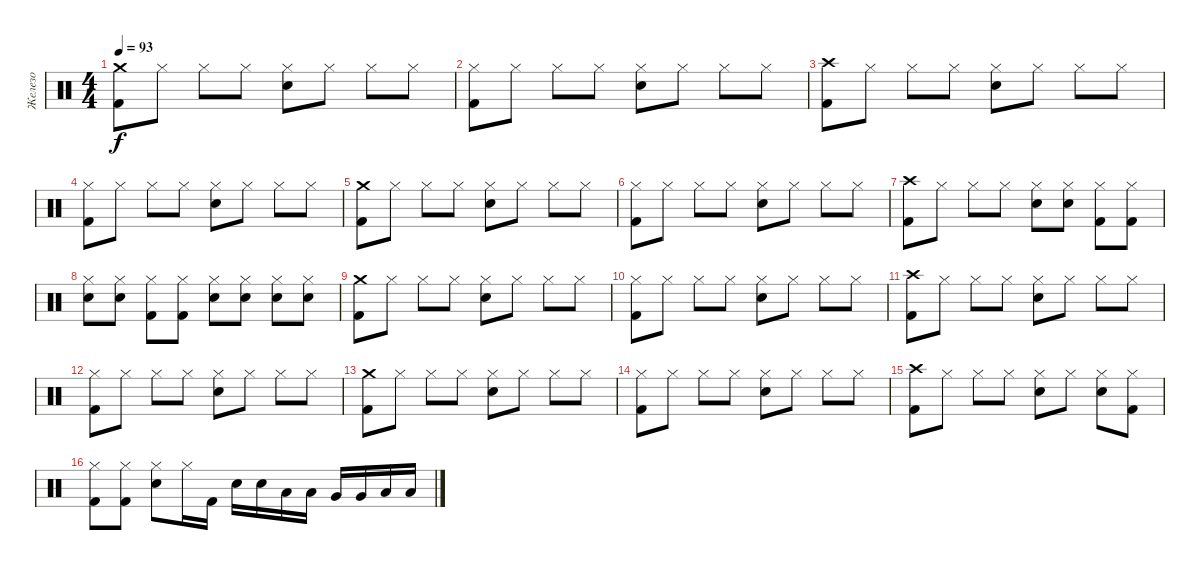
\track ("Железо" "Железо") {instrument percussion}
\staff {score}
\articulation defaults
\ts (4 4)
\tempo 93
\clef neutral
\ks c
("Crash medium (hit)" "Kick (hit) 2").8{dy f} "Hi-Hat (closed)".8 "Hi-Hat (closed)".8 "Hi-Hat (closed)".8 ("Hi-Hat (closed)" "Electric Snare (hit)").8 "Hi-Hat (closed)".8 "Hi-Hat (closed)".8 "Hi-Hat (closed)".8 |
("Hi-Hat (closed)" "Kick (hit) 2").8 "Hi-Hat (closed)".8 "Hi-Hat (closed)".8 "Hi-Hat (closed)".8 ("Hi-Hat (closed)" "Electric Snare (hit)").8 "Hi-Hat (closed)".8 "Hi-Hat (closed)".8 "Hi-Hat (closed)".8 |
("Crash high (hit)" "Kick (hit) 2").8 "Hi-Hat (closed)".8 "Hi-Hat (closed)".8 "Hi-Hat (closed)".8 ("Hi-Hat (closed)" "Electric Snare (hit)").8 "Hi-Hat (closed)".8 "Hi-Hat (closed)".8 "Hi-Hat (closed)".8 |
("Hi-Hat (closed)" "Kick (hit) 2").8 "Hi-Hat (closed)".8 "Hi-Hat (closed)".8 "Hi-Hat (closed)".8 ("Hi-Hat (closed)" "Electric Snare (hit)").8 "Hi-Hat (closed)".8 "Hi-Hat (closed)".8 "Hi-Hat (closed)".8 |
("Crash medium (hit)" "Kick (hit) 2").8 "Hi-Hat (closed)".8 "Hi-Hat (closed)".8 "Hi-Hat (closed)".8 ("Hi-Hat (closed)" "Electric Snare (hit)").8 "Hi-Hat (closed)".8 "Hi-Hat (closed)".8 "Hi-Hat (closed)".8 |
("Hi-Hat (closed)" "Kick (hit) 2").8 "Hi-Hat (closed)".8 "Hi-Hat (closed)".8 "Hi-Hat (closed)".8 ("Hi-Hat (closed)" "Electric Snare (hit)").8 "Hi-Hat (closed)".8 "Hi-Hat (closed)".8 "Hi-Hat (closed)".8 |
("Crash high (hit)" "Kick (hit) 2").8 "Hi-Hat (closed)".8 "Hi-Hat (closed)".8 "Hi-Hat (closed)".8 ("Hi-Hat (closed)" "Electric Snare (hit)").8 ("Hi-Hat (closed)" "Electric Snare (hit)").8 ("Hi-Hat (closed)" "Kick (hit) 2").8 ("Hi-Hat (closed)" "Kick (hit) 2").8 |
("Hi-Hat (closed)" "Electric Snare (hit)").8 ("Hi-Hat (closed)" "Electric Snare (hit)").8 ("Hi-Hat (closed)" "Kick (hit) 2").8 ("Hi-Hat (closed)" "Kick (hit) 2").8 ("Hi-Hat (closed)" "Electric Snare (hit)").8 ("Hi-Hat (closed)" "Electric Snare (hit)").8 ("Hi-Hat (closed)" "Electric Snare (hit)").8 ("Hi-Hat (closed)" "Electric Snare (hit)").8 |
("Crash medium (hit)" "Kick (hit) 2").8 "Hi-Hat (closed)".8 "Hi-Hat (closed)".8 "Hi-Hat (closed)".8 ("Hi-Hat (closed)" "Electric Snare (hit)").8 "Hi-Hat (closed)".8 "Hi-Hat (closed)".8 "Hi-Hat (closed)".8 |
("Hi-Hat (closed)" "Kick (hit) 2").8 "Hi-Hat (closed)".8 "Hi-Hat (closed)".8 "Hi-Hat (closed)".8 ("Hi-Hat (closed)" "Electric Snare (hit)").8 "Hi-Hat (closed)".8 "Hi-Hat (closed)".8 "Hi-Hat (closed)".8 |
("Crash high (hit)" "Kick (hit) 2").8 "Hi-Hat (closed)".8 "Hi-Hat (closed)".8 "Hi-Hat (closed)".8 ("Hi-Hat (closed)" "Electric Snare (hit)").8 "Hi-Hat (closed)".8 "Hi-Hat (closed)".8 "Hi-Hat (closed)".8 |
("Hi-Hat (closed)" "Kick (hit) 2").8 "Hi-Hat (closed)".8 "Hi-Hat (closed)".8 "Hi-Hat (closed)".8 ("Hi-Hat (closed)" "Electric Snare (hit)").8 "Hi-Hat (closed)".8 "Hi-Hat (closed)".8 "Hi-Hat (closed)".8 |
("Crash medium (hit)" "Kick (hit) 2").8 "Hi-Hat (closed)".8 "Hi-Hat (closed)".8 "Hi-Hat (closed)".8 ("Hi-Hat (closed)" "Electric Snare (hit)").8 "Hi-Hat (closed)".8 "Hi-Hat (closed)".8 "Hi-Hat (closed)".8 |
("Hi-Hat (closed)" "Kick (hit) 2").8 "Hi-Hat (closed)".8 "Hi-Hat (closed)".8 "Hi-Hat (closed)".8 ("Hi-Hat (closed)" "Electric Snare (hit)").8 "Hi-Hat (closed)".8 "Hi-Hat (closed)".8 "Hi-Hat (closed)".8 |
("Crash high (hit)" "Kick (hit) 2").8 "Hi-Hat (closed)".8 "Hi-Hat (closed)".8 "Hi-Hat (closed)".8 ("Hi-Hat (closed)" "Electric Snare (hit)").8 "Hi-Hat (closed)".8 ("Hi-Hat (closed)" "Electric Snare (hit)").8 ("Hi-Hat (closed)" "Kick (hit) 2").8 |
("Hi-Hat (closed)" "Kick (hit) 2").8 ("Hi-Hat (closed)" "Kick (hit) 2").8 ("Hi-Hat (closed)" "Electric Snare (hit)").8 "Hi-Hat (closed)".16 "Kick (hit) 2".16 "Electric Snare (hit)".16 "Electric Snare (hit)".16 "Low Tom (hit)".16 "Low Tom (hit)".16 "Very Low Tom (hit)".16 "Very Low Tom (hit)".16 "Low Floor Tom (hit)".16 "Low Floor Tom (hit)".16
